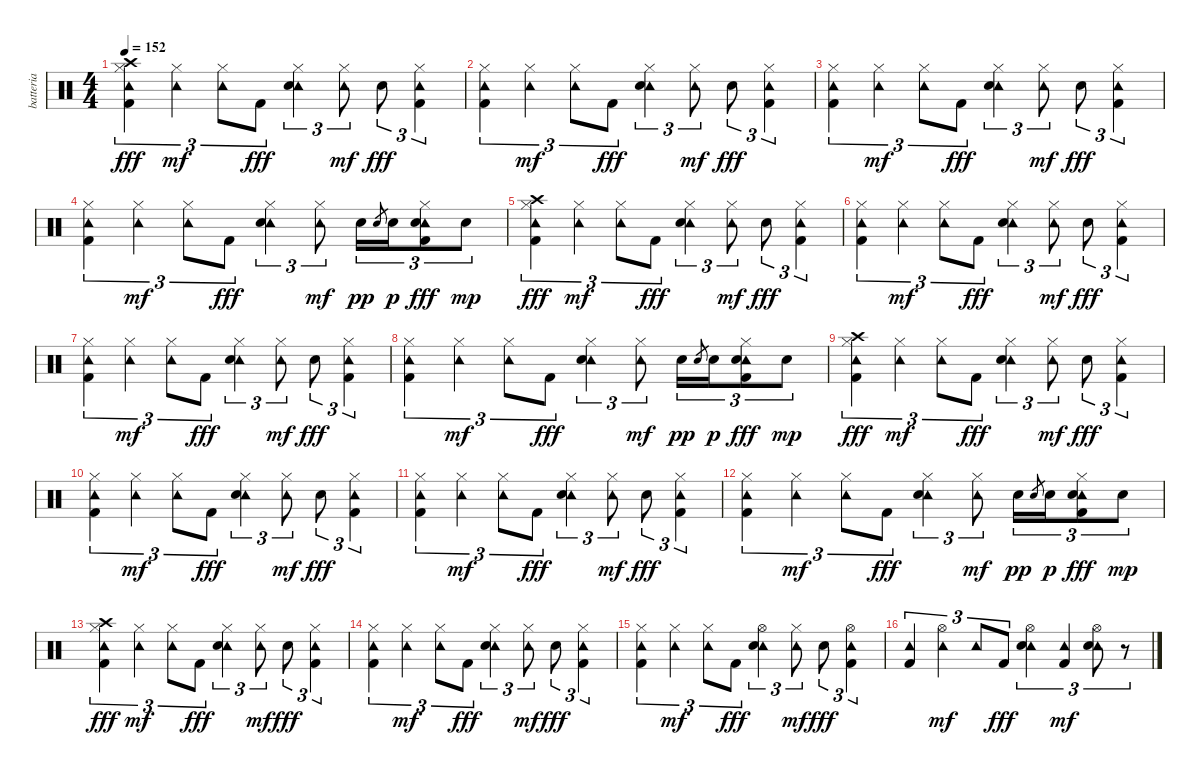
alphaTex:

\track ("batteria" "batteria") {instrument percussion}
\staff {score}
\articulation defaults
\ts (4 4)
\tempo 152
\clef neutral
\ks c
("Hi-Hat (closed)" "Tambourine (hit)" "Crash high (hit)" "Kick (hit) 2").4{tu (3 2) dy fff} ("Hi-Hat (closed)" "Tambourine (hit)").4{tu (3 2) dy mf} ("Hi-Hat (closed)" "Tambourine (hit)").8{tu (3 2)} "Kick (hit) 2".8{tu (3 2) dy fff} ("Hi-Hat (closed)" "Tambourine (hit)" "Electric Snare (hit)").4{tu (3 2)} ("Hi-Hat (closed)" "Tambourine (hit)").8{tu (3 2) dy mf} "Electric Snare (hit)".8{tu (3 2) dy fff} ("Hi-Hat (closed)" "Tambourine (hit)" "Kick (hit) 2").4{tu (3 2)} |
("Hi-Hat (closed)" "Tambourine (hit)" "Kick (hit) 2").4{tu (3 2)} ("Hi-Hat (closed)" "Tambourine (hit)").4{tu (3 2) dy mf} ("Hi-Hat (closed)" "Tambourine (hit)").8{tu (3 2)} "Kick (hit) 2".8{tu (3 2) dy fff} ("Hi-Hat (closed)" "Tambourine (hit)" "Electric Snare (hit)").4{tu (3 2)} ("Hi-Hat (closed)" "Tambourine (hit)").8{tu (3 2) dy mf} "Electric Snare (hit)".8{tu (3 2) dy fff} ("Hi-Hat (closed)" "Tambourine (hit)" "Kick (hit) 2").4{tu (3 2)} |
("Hi-Hat (closed)" "Tambourine (hit)" "Kick (hit) 2").4{tu (3 2)} ("Hi-Hat (closed)" "Tambourine (hit)").4{tu (3 2) dy mf} ("Hi-Hat (closed)" "Tambourine (hit)").8{tu (3 2)} "Kick (hit) 2".8{tu (3 2) dy fff} ("Hi-Hat (closed)" "Tambourine (hit)" "Electric Snare (hit)").4{tu (3 2)} ("Hi-Hat (closed)" "Tambourine (hit)").8{tu (3 2) dy mf} "Electric Snare (hit)".8{tu (3 2) dy fff} ("Hi-Hat (closed)" "Tambourine (hit)" "Kick (hit) 2").4{tu (3 2)} |
("Hi-Hat (closed)" "Tambourine (hit)" "Kick (hit) 2").4{tu (3 2)} ("Hi-Hat (closed)" "Tambourine (hit)").4{tu (3 2) dy mf} ("Hi-Hat (closed)" "Tambourine (hit)").8{tu (3 2)} "Kick (hit) 2".8{tu (3 2) dy fff} ("Hi-Hat (closed)" "Tambourine (hit)" "Electric Snare (hit)").4{tu (3 2)} ("Hi-Hat (closed)" "Tambourine (hit)").8{tu (3 2) dy mf} "Electric Snare (hit)".16{tu (3 2) dy pp} "Electric Snare (hit)".8{gr} "Electric Snare (hit)".16{tu (3 2) dy p} ("Hi-Hat (closed)" "Tambourine (hit)" "Electric Snare (hit)" "Kick (hit) 2").8{tu (3 2) dy fff} "Electric Snare (hit)".8{tu (3 2) dy mp} |
("Hi-Hat (closed)" "Tambourine (hit)" "Crash high (hit)" "Kick (hit) 2").4{tu (3 2) dy fff} ("Hi-Hat (closed)" "Tambourine (hit)").4{tu (3 2) dy mf} ("Hi-Hat (closed)" "Tambourine (hit)").8{tu (3 2)} "Kick (hit) 2".8{tu (3 2) dy fff} ("Hi-Hat (closed)" "Tambourine (hit)" "Electric Snare (hit)").4{tu (3 2)} ("Hi-Hat (closed)" "Tambourine (hit)").8{tu (3 2) dy mf} "Electric Snare (hit)".8{tu (3 2) dy fff} ("Hi-Hat (closed)" "Tambourine (hit)" "Kick (hit) 2").4{tu (3 2)} |
("Hi-Hat (closed)" "Tambourine (hit)" "Kick (hit) 2").4{tu (3 2)} ("Hi-Hat (closed)" "Tambourine (hit)").4{tu (3 2) dy mf} ("Hi-Hat (closed)" "Tambourine (hit)").8{tu (3 2)} "Kick (hit) 2".8{tu (3 2) dy fff} ("Hi-Hat (closed)" "Tambourine (hit)" "Electric Snare (hit)").4{tu (3 2)} ("Hi-Hat (closed)" "Tambourine (hit)").8{tu (3 2) dy mf} "Electric Snare (hit)".8{tu (3 2) dy fff} ("Hi-Hat (closed)" "Tambourine (hit)" "Kick (hit) 2").4{tu (3 2)} |
("Hi-Hat (closed)" "Tambourine (hit)" "Kick (hit) 2").4{tu (3 2)} ("Hi-Hat (closed)" "Tambourine (hit)").4{tu (3 2) dy mf} ("Hi-Hat (closed)" "Tambourine (hit)").8{tu (3 2)} "Kick (hit) 2".8{tu (3 2) dy fff} ("Hi-Hat (closed)" "Tambourine (hit)" "Electric Snare (hit)").4{tu (3 2)} ("Hi-Hat (closed)" "Tambourine (hit)").8{tu (3 2) dy mf} "Electric Snare (hit)".8{tu (3 2) dy fff} ("Hi-Hat (closed)" "Tambourine (hit)" "Kick (hit) 2").4{tu (3 2)} |
("Hi-Hat (closed)" "Tambourine (hit)" "Kick (hit) 2").4{tu (3 2)} ("Hi-Hat (closed)" "Tambourine (hit)").4{tu (3 2) dy mf} ("Hi-Hat (closed)" "Tambourine (hit)").8{tu (3 2)} "Kick (hit) 2".8{tu (3 2) dy fff} ("Hi-Hat (closed)" "Tambourine (hit)" "Electric Snare (hit)").4{tu (3 2)} ("Hi-Hat (closed)" "Tambourine (hit)").8{tu (3 2) dy mf} "Electric Snare (hit)".16{tu (3 2) dy pp} "Electric Snare (hit)".8{gr} "Electric Snare (hit)".16{tu (3 2) dy p} ("Hi-Hat (closed)" "Tambourine (hit)" "Electric Snare (hit)" "Kick (hit) 2").8{tu (3 2) dy fff} "Electric Snare (hit)".8{tu (3 2) dy mp} |
("Hi-Hat (closed)" "Tambourine (hit)" "Crash high (hit)" "Kick (hit) 2").4{tu (3 2) dy fff} ("Hi-Hat (closed)" "Tambourine (hit)").4{tu (3 2) dy mf} ("Hi-Hat (closed)" "Tambourine (hit)").8{tu (3 2)} "Kick (hit) 2".8{tu (3 2) dy fff} ("Hi-Hat (closed)" "Tambourine (hit)" "Electric Snare (hit)").4{tu (3 2)} ("Hi-Hat (closed)" "Tambourine (hit)").8{tu (3 2) dy mf} "Electric Snare (hit)".8{tu (3 2) dy fff} ("Hi-Hat (closed)" "Tambourine (hit)" "Kick (hit) 2").4{tu (3 2)} |
("Hi-Hat (closed)" "Tambourine (hit)" "Kick (hit) 2").4{tu (3 2)} ("Hi-Hat (closed)" "Tambourine (hit)").4{tu (3 2) dy mf} ("Hi-Hat (closed)" "Tambourine (hit)").8{tu (3 2)} "Kick (hit) 2".8{tu (3 2) dy fff} ("Hi-Hat (closed)" "Tambourine (hit)" "Electric Snare (hit)").4{tu (3 2)} ("Hi-Hat (closed)" "Tambourine (hit)").8{tu (3 2) dy mf} "Electric Snare (hit)".8{tu (3 2) dy fff} ("Hi-Hat (closed)" "Tambourine (hit)" "Kick (hit) 2").4{tu (3 2)} |
("Hi-Hat (closed)" "Tambourine (hit)" "Kick (hit) 2").4{tu (3 2)} ("Hi-Hat (closed)" "Tambourine (hit)").4{tu (3 2) dy mf} ("Hi-Hat (closed)" "Tambourine (hit)").8{tu (3 2)} "Kick (hit) 2".8{tu (3 2) dy fff} ("Hi-Hat (closed)" "Tambourine (hit)" "Electric Snare (hit)").4{tu (3 2)} ("Hi-Hat (closed)" "Tambourine (hit)").8{tu (3 2) dy mf} "Electric Snare (hit)".8{tu (3 2) dy fff} ("Hi-Hat (closed)" "Tambourine (hit)" "Kick (hit) 2").4{tu (3 2)} |
("Hi-Hat (closed)" "Tambourine (hit)" "Kick (hit) 2").4{tu (3 2)} ("Hi-Hat (closed)" "Tambourine (hit)").4{tu (3 2) dy mf} ("Hi-Hat (closed)" "Tambourine (hit)").8{tu (3 2)} "Kick (hit) 2".8{tu (3 2) dy fff} ("Hi-Hat (closed)" "Tambourine (hit)" "Electric Snare (hit)").4{tu (3 2)} ("Hi-Hat (closed)" "Tambourine (hit)").8{tu (3 2) dy mf} "Electric Snare (hit)".16{tu (3 2) dy pp} "Electric Snare (hit)".8{gr} "Electric Snare (hit)".16{tu (3 2) dy p} ("Hi-Hat (closed)" "Tambourine (hit)" "Electric Snare (hit)" "Kick (hit) 2").8{tu (3 2) dy fff} "Electric Snare (hit)".8{tu (3 2) dy mp} |
("Hi-Hat (closed)" "Tambourine (hit)" "Crash high (hit)" "Kick (hit) 2").4{tu (3 2) dy fff} ("Hi-Hat (closed)" "Tambourine (hit)").4{tu (3 2) dy mf} ("Hi-Hat (closed)" "Tambourine (hit)").8{tu (3 2)} "Kick (hit) 2".8{tu (3 2) dy fff} ("Hi-Hat (closed)" "Tambourine (hit)" "Electric Snare (hit)").4{tu (3 2)} ("Hi-Hat (closed)" "Tambourine (hit)").8{tu (3 2) dy mf} "Electric Snare (hit)".8{tu (3 2) dy fff} ("Hi-Hat (closed)" "Tambourine (hit)" "Kick (hit) 2").4{tu (3 2)} |
("Hi-Hat (closed)" "Tambourine (hit)" "Kick (hit) 2").4{tu (3 2)} ("Hi-Hat (closed)" "Tambourine (hit)").4{tu (3 2) dy mf} ("Hi-Hat (closed)" "Tambourine (hit)").8{tu (3 2)} "Kick (hit) 2".8{tu (3 2) dy fff} ("Hi-Hat (closed)" "Tambourine (hit)" "Electric Snare (hit)").4{tu (3 2)} ("Hi-Hat (closed)" "Tambourine (hit)").8{tu (3 2) dy mf} "Electric Snare (hit)".8{tu (3 2) dy fff} ("Hi-Hat (closed)" "Tambourine (hit)" "Kick (hit) 2").4{tu (3 2)} |
("Hi-Hat (closed)" "Tambourine (hit)" "Kick (hit) 2").4{tu (3 2)} ("Hi-Hat (closed)" "Tambourine (hit)").4{tu (3 2) dy mf} ("Hi-Hat (closed)" "Tambourine (hit)").8{tu (3 2)} "Kick (hit) 2".8{tu (3 2) dy fff} ("Hi-Hat (open)" "Tambourine (hit)" "Electric Snare (hit)").4{tu (3 2)} ("Hi-Hat (closed)" "Tambourine (hit)").8{tu (3 2) dy mf} "Electric Snare (hit)".8{tu (3 2) dy fff} ("Hi-Hat (open)" "Tambourine (hit)" "Kick (hit) 2").4{tu (3 2)} |
("Tambourine (hit)" "Kick (hit) 2").4{tu (3 2)} ("Hi-Hat (open)" "Tambourine (hit)").4{tu (3 2) dy mf} "Tambourine (hit)".8{tu (3 2)} "Kick (hit) 2".8{tu (3 2) dy fff} ("Hi-Hat (open)" "Tambourine (hit)" "Electric Snare (hit)").4{tu (3 2)} ("Tambourine (hit)" "Kick (hit) 2").4{tu (3 2) dy mf} ("Hi-Hat (open)" "Tambourine (hit)" "Electric Snare (hit)").8{tu (3 2)} r.8{tu (3 2)}
